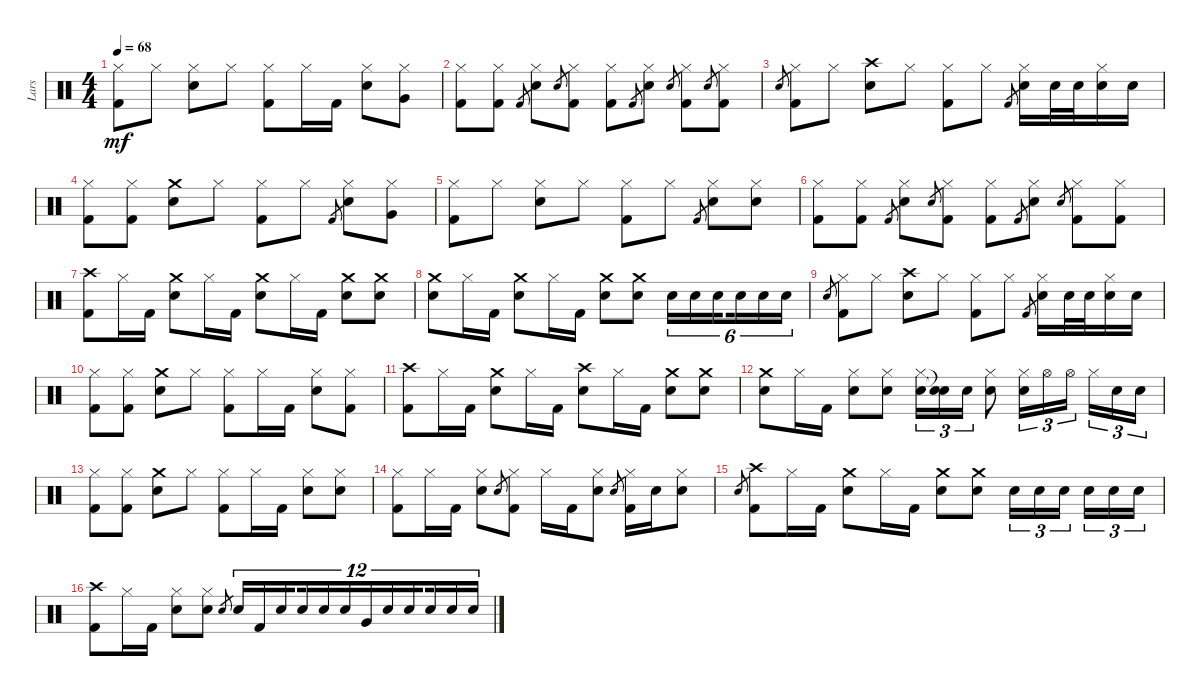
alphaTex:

\track ("Lars" "Lars") {instrument percussion}
\staff {score}
\articulation defaults
\ts (4 4)
\tempo 68
\clef neutral
\ks c
("Hi-Hat (closed)" "Kick (hit) 2").8{dy mf} "Hi-Hat (closed)".8 ("Hi-Hat (closed)" "Electric Snare (hit)").8 "Hi-Hat (closed)".8 ("Hi-Hat (closed)" "Kick (hit) 2").8 "Hi-Hat (closed)".16 "Kick (hit) 2".16 ("Hi-Hat (closed)" "Electric Snare (hit)").8 ("Hi-Hat (closed)" "Very Low Tom (hit)").8 |
("Hi-Hat (closed)" "Kick (hit) 2").8 ("Hi-Hat (closed)" "Kick (hit) 2").8 "Kick (hit) 2".8{gr} ("Hi-Hat (closed)" "Electric Snare (hit)").8 "Electric Snare (hit)".8{gr} ("Hi-Hat (closed)" "Kick (hit) 2").8 ("Hi-Hat (closed)" "Kick (hit) 2").8 "Kick (hit) 2".8{gr} ("Hi-Hat (closed)" "Electric Snare (hit)").8 "Electric Snare (hit)".8{gr} ("Hi-Hat (closed)" "Kick (hit) 2").8 "Electric Snare (hit)".8{gr} ("Hi-Hat (closed)" "Kick (hit) 2").8 |
"Electric Snare (hit)".8{gr} ("Hi-Hat (closed)" "Kick (hit) 2").8 "Hi-Hat (closed)".8 ("Crash high (hit)" "Electric Snare (hit)").8 "Hi-Hat (closed)".8 ("Hi-Hat (closed)" "Kick (hit) 2").8 "Hi-Hat (closed)".8 "Kick (hit) 2".8{gr} ("Hi-Hat (closed)" "Electric Snare (hit)").16 "Electric Snare (hit)".32 "Electric Snare (hit)".32 ("Hi-Hat (closed)" "Electric Snare (hit)").16 "Electric Snare (hit)".16 |
("Hi-Hat (closed)" "Kick (hit) 2").8 ("Hi-Hat (closed)" "Kick (hit) 2").8 ("Crash medium (hit)" "Electric Snare (hit)").8 "Hi-Hat (closed)".8 ("Hi-Hat (closed)" "Kick (hit) 2").8 "Hi-Hat (closed)".8 "Kick (hit) 2".8{gr} ("Hi-Hat (closed)" "Electric Snare (hit)").8 ("Hi-Hat (closed)" "Very Low Tom (hit)").8 |
("Hi-Hat (closed)" "Kick (hit) 2").8 "Hi-Hat (closed)".8 ("Hi-Hat (closed)" "Electric Snare (hit)").8 "Hi-Hat (closed)".8 ("Hi-Hat (closed)" "Kick (hit) 2").8 "Hi-Hat (closed)".8 "Kick (hit) 2".8{gr} ("Hi-Hat (closed)" "Electric Snare (hit)").8 ("Hi-Hat (closed)" "Electric Snare (hit)").8 |
("Hi-Hat (closed)" "Kick (hit) 2").8 ("Hi-Hat (closed)" "Kick (hit) 2").8 "Kick (hit) 2".8{gr} ("Hi-Hat (closed)" "Electric Snare (hit)").8 "Electric Snare (hit)".8{gr} ("Hi-Hat (closed)" "Kick (hit) 2").8 ("Hi-Hat (closed)" "Kick (hit) 2").8 "Kick (hit) 2".8{gr} ("Hi-Hat (closed)" "Electric Snare (hit)").8 "Electric Snare (hit)".8{gr} ("Hi-Hat (closed)" "Kick (hit) 2").8 ("Hi-Hat (closed)" "Kick (hit) 2").8 |
("Crash high (hit)" "Kick (hit) 2").8 "Hi-Hat (closed)".16 "Kick (hit) 2".16 ("Crash medium (hit)" "Electric Snare (hit)").8 "Hi-Hat (closed)".16 "Kick (hit) 2".16 ("Crash medium (hit)" "Electric Snare (hit)").8 "Hi-Hat (closed)".16 "Kick (hit) 2".16 ("Crash medium (hit)" "Electric Snare (hit)").8 ("Crash medium (hit)" "Electric Snare (hit)").8 |
("Crash medium (hit)" "Electric Snare (hit)").8 "Hi-Hat (closed)".16 "Kick (hit) 2".16 ("Crash medium (hit)" "Electric Snare (hit)").8 "Hi-Hat (closed)".16 "Kick (hit) 2".16 ("Crash medium (hit)" "Electric Snare (hit)").8 ("Crash medium (hit)" "Electric Snare (hit)").8 "Electric Snare (hit)".16{tu (6 4)} "Electric Snare (hit)".16{tu (6 4)} "Electric Snare (hit)".16{tu (6 4) beam splitsecondary} "Electric Snare (hit)".16{tu (6 4)} "Electric Snare (hit)".16{tu (6 4)} "Electric Snare (hit)".16{tu (6 4)} |
"Electric Snare (hit)".8{gr} ("Hi-Hat (closed)" "Kick (hit) 2").8 "Hi-Hat (closed)".8 ("Crash high (hit)" "Electric Snare (hit)").8 "Hi-Hat (closed)".8 ("Hi-Hat (closed)" "Kick (hit) 2").8 "Hi-Hat (closed)".8 "Kick (hit) 2".8{gr} ("Hi-Hat (closed)" "Electric Snare (hit)").16 "Electric Snare (hit)".32 "Electric Snare (hit)".32 ("Hi-Hat (closed)" "Electric Snare (hit)").16 "Electric Snare (hit)".16 |
("Hi-Hat (closed)" "Kick (hit) 2").8 ("Hi-Hat (closed)" "Kick (hit) 2").8 ("Crash medium (hit)" "Electric Snare (hit)").8 "Hi-Hat (closed)".8 ("Hi-Hat (closed)" "Kick (hit) 2").8 "Hi-Hat (closed)".16 "Kick (hit) 2".16 ("Hi-Hat (closed)" "Electric Snare (hit)").8 ("Hi-Hat (closed)" "Kick (hit) 2").8 |
("Crash high (hit)" "Kick (hit) 2").8 "Hi-Hat (closed)".16 "Kick (hit) 2".16 ("Crash medium (hit)" "Electric Snare (hit)").8 "Hi-Hat (closed)".16 "Kick (hit) 2".16 ("Crash high (hit)" "Electric Snare (hit)").8 "Hi-Hat (closed)".16 "Kick (hit) 2".16 ("Crash medium (hit)" "Electric Snare (hit)").8 ("Crash medium (hit)" "Electric Snare (hit)").8 |
("Crash medium (hit)" "Electric Snare (hit)").8 "Hi-Hat (closed)".16 "Kick (hit) 2".16 ("Hi-Hat (closed)" "Electric Snare (hit)").8 ("Hi-Hat (closed)" "Electric Snare (hit)").8 ("Hi-Hat (closed)" "Electric Snare (hit)").16{tu (3 2)} ("Snare (hit)"{t} "Snare (hit)"{t}).16{tu (3 2)} "Electric Snare (hit)".16{tu (3 2)} ("Hi-Hat (closed)" "Electric Snare (hit)").8 ("Hi-Hat (closed)" "Electric Snare (hit)").16{tu (3 2)} "Hi-Hat (open)".16{tu (3 2)} "Hi-Hat (open)".16{tu (3 2) beam splitsecondary} "Hi-Hat (closed)".16{tu (3 2)} "Electric Snare (hit)".16{tu (3 2)} "Electric Snare (hit)".16{tu (3 2)} |
("Hi-Hat (closed)" "Kick (hit) 2").8 ("Hi-Hat (closed)" "Kick (hit) 2").8 ("Crash medium (hit)" "Electric Snare (hit)").8 "Hi-Hat (closed)".8 ("Hi-Hat (closed)" "Kick (hit) 2").8 "Hi-Hat (closed)".16 "Kick (hit) 2".16 ("Hi-Hat (closed)" "Electric Snare (hit)").8 ("Hi-Hat (closed)" "Electric Snare (hit)").8 |
("Hi-Hat (closed)" "Kick (hit) 2").8 "Hi-Hat (closed)".16 "Kick (hit) 2".16 ("Hi-Hat (closed)" "Electric Snare (hit)").8 "Electric Snare (hit)".8{gr} ("Hi-Hat (closed)" "Kick (hit) 2").8 "Hi-Hat (closed)".16 "Kick (hit) 2".16 ("Hi-Hat (closed)" "Electric Snare (hit)").8 "Electric Snare (hit)".8{gr} ("Hi-Hat (closed)" "Kick (hit) 2").16 "Electric Snare (hit)".16 ("Hi-Hat (closed)" "Electric Snare (hit)").8 |
"Electric Snare (hit)".8{gr} ("Crash high (hit)" "Kick (hit) 2").8 "Hi-Hat (closed)".16 "Kick (hit) 2".16 ("Crash medium (hit)" "Electric Snare (hit)").8 "Hi-Hat (closed)".16 "Kick (hit) 2".16 ("Crash medium (hit)" "Electric Snare (hit)").8 ("Crash medium (hit)" "Electric Snare (hit)").8 "Electric Snare (hit)".16{tu (3 2)} "Electric Snare (hit)".16{tu (3 2)} "Electric Snare (hit)".16{tu (3 2) beam splitsecondary} "Electric Snare (hit)".16{tu (3 2)} "Electric Snare (hit)".16{tu (3 2)} "Electric Snare (hit)".16{tu (3 2)} |
("Crash high (hit)" "Kick (hit) 2").8 "Hi-Hat (closed)".16 "Kick (hit) 2".16 ("Hi-Hat (closed)" "Electric Snare (hit)").8 ("Hi-Hat (closed)" "Electric Snare (hit)").8 "Electric Snare (hit)".8{gr} "Electric Snare (hit)".16{tu (12 8)} "Kick (hit) 2".16{tu (12 8)} "Electric Snare (hit)".16{tu (12 8) beam splitsecondary} "Electric Snare (hit)".16{tu (12 8)} "Electric Snare (hit)".16{tu (12 8)} "Electric Snare (hit)".16{tu (12 8)} "Very Low Tom (hit)".16{tu (12 8)} "Electric Snare (hit)".16{tu (12 8)} "Electric Snare (hit)".16{tu (12 8) beam splitsecondary} "Electric Snare (hit)".16{tu (12 8)} "Electric Snare (hit)".16{tu (12 8)} "Electric Snare (hit)".16{tu (12 8)}
